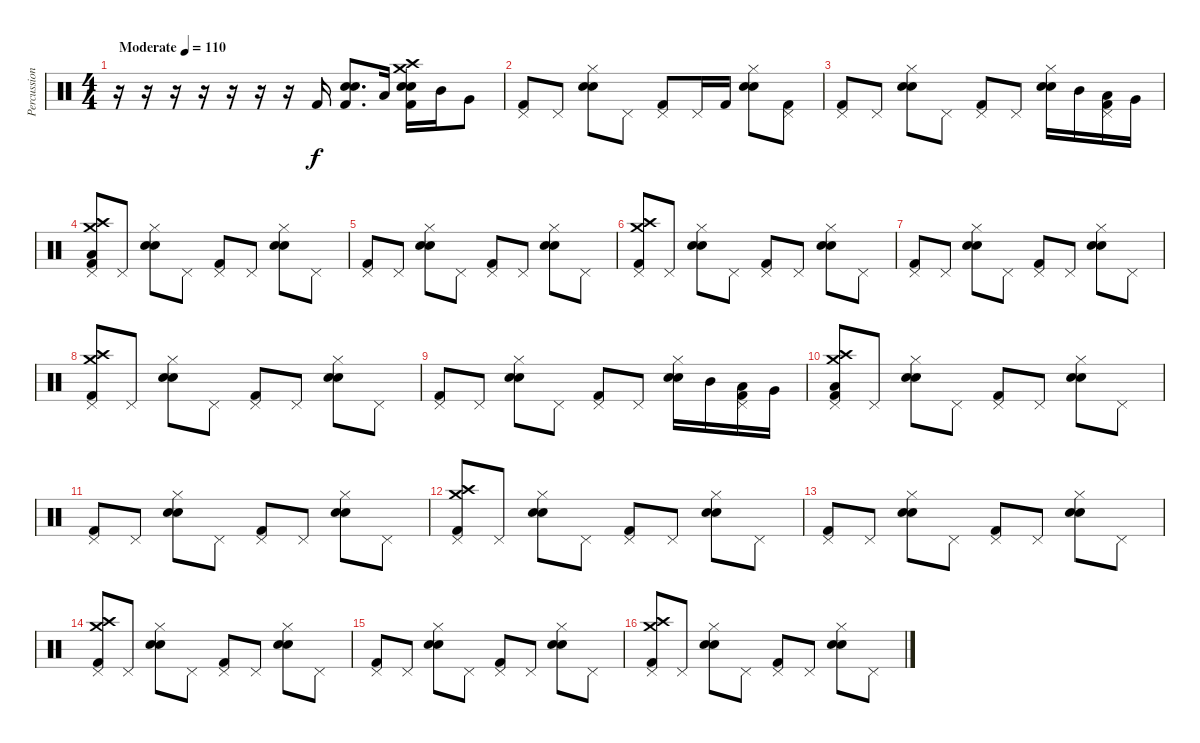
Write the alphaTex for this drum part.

\track ("Percussion" "Percussion") {instrument percussion}
\staff {score}
\articulation defaults
\ts (4 4)
\tempo (110 "Moderate")
\clef neutral
\ks c
r.16{dy f} r.16 r.16 r.16 r.16 r.16 r.16 "Kick (hit) 2".16 ("Electric Snare (hit)" "Snare (hit) 2" "Kick (hit) 2").8{d} "Low Tom (hit)".16 ("Crash medium (hit)" "Crash high (hit)" "Electric Snare (hit)" "Snare (hit) 2" "Kick (hit) 2").16 "Mid Tom (hit)".16 "Very Low Tom (hit)".8 |
("Pedal Hi-Hat (hit)" "Kick (hit) 2").8 "Pedal Hi-Hat (hit)".8 ("Electric Snare (hit)" "Hi-Hat (closed)" "Snare (hit) 2").8 "Pedal Hi-Hat (hit)".8 ("Pedal Hi-Hat (hit)" "Kick (hit) 2").8 "Pedal Hi-Hat (hit)".16 "Kick (hit) 2".16 ("Electric Snare (hit)" "Hi-Hat (closed)" "Snare (hit) 2").8 ("Pedal Hi-Hat (hit)" "Kick (hit) 2").8 |
("Pedal Hi-Hat (hit)" "Kick (hit) 2").8 "Pedal Hi-Hat (hit)".8 ("Electric Snare (hit)" "Hi-Hat (closed)" "Snare (hit) 2").8 "Pedal Hi-Hat (hit)".8 ("Pedal Hi-Hat (hit)" "Kick (hit) 2").8 "Pedal Hi-Hat (hit)".8 ("Electric Snare (hit)" "Hi-Hat (closed)" "Snare (hit) 2").16 "Mid Tom (hit)".16 ("Low Tom (hit)" "Pedal Hi-Hat (hit)" "Kick (hit) 2").16 "Very Low Tom (hit)".16 |
("Low Floor Tom (hit)" "Crash medium (hit)" "Crash high (hit)" "Pedal Hi-Hat (hit)" "Kick (hit) 2").8 "Pedal Hi-Hat (hit)".8 ("Electric Snare (hit)" "Hi-Hat (closed)" "Snare (hit) 2").8 "Pedal Hi-Hat (hit)".8 ("Pedal Hi-Hat (hit)" "Kick (hit) 2").8 "Pedal Hi-Hat (hit)".8 ("Electric Snare (hit)" "Hi-Hat (closed)" "Snare (hit) 2").8 "Pedal Hi-Hat (hit)".8 |
("Pedal Hi-Hat (hit)" "Kick (hit) 2").8 "Pedal Hi-Hat (hit)".8 ("Electric Snare (hit)" "Hi-Hat (closed)" "Snare (hit) 2").8 "Pedal Hi-Hat (hit)".8 ("Pedal Hi-Hat (hit)" "Kick (hit) 2").8 "Pedal Hi-Hat (hit)".8 ("Electric Snare (hit)" "Hi-Hat (closed)" "Snare (hit) 2").8 "Pedal Hi-Hat (hit)".8 |
("Crash medium (hit)" "Crash high (hit)" "Pedal Hi-Hat (hit)" "Kick (hit) 2").8 "Pedal Hi-Hat (hit)".8 ("Electric Snare (hit)" "Hi-Hat (closed)" "Snare (hit) 2").8 "Pedal Hi-Hat (hit)".8 ("Pedal Hi-Hat (hit)" "Kick (hit) 2").8 "Pedal Hi-Hat (hit)".8 ("Electric Snare (hit)" "Hi-Hat (closed)" "Snare (hit) 2").8 "Pedal Hi-Hat (hit)".8 |
("Pedal Hi-Hat (hit)" "Kick (hit) 2").8 "Pedal Hi-Hat (hit)".8 ("Electric Snare (hit)" "Hi-Hat (closed)" "Snare (hit) 2").8 "Pedal Hi-Hat (hit)".8 ("Pedal Hi-Hat (hit)" "Kick (hit) 2").8 "Pedal Hi-Hat (hit)".8 ("Electric Snare (hit)" "Hi-Hat (closed)" "Snare (hit) 2").8 "Pedal Hi-Hat (hit)".8 |
("Crash medium (hit)" "Crash high (hit)" "Pedal Hi-Hat (hit)" "Kick (hit) 2").8 "Pedal Hi-Hat (hit)".8 ("Electric Snare (hit)" "Hi-Hat (closed)" "Snare (hit) 2").8 "Pedal Hi-Hat (hit)".8 ("Pedal Hi-Hat (hit)" "Kick (hit) 2").8 "Pedal Hi-Hat (hit)".8 ("Electric Snare (hit)" "Hi-Hat (closed)" "Snare (hit) 2").8 "Pedal Hi-Hat (hit)".8 |
("Pedal Hi-Hat (hit)" "Kick (hit) 2").8 "Pedal Hi-Hat (hit)".8 ("Electric Snare (hit)" "Hi-Hat (closed)" "Snare (hit) 2").8 "Pedal Hi-Hat (hit)".8 ("Pedal Hi-Hat (hit)" "Kick (hit) 2").8 "Pedal Hi-Hat (hit)".8 ("Electric Snare (hit)" "Hi-Hat (closed)" "Snare (hit) 2").16 "Mid Tom (hit)".16 ("Low Tom (hit)" "Pedal Hi-Hat (hit)" "Kick (hit) 2").16 "Very Low Tom (hit)".16 |
("Low Floor Tom (hit)" "Crash medium (hit)" "Crash high (hit)" "Pedal Hi-Hat (hit)" "Kick (hit) 2").8 "Pedal Hi-Hat (hit)".8 ("Electric Snare (hit)" "Hi-Hat (closed)" "Snare (hit) 2").8 "Pedal Hi-Hat (hit)".8 ("Pedal Hi-Hat (hit)" "Kick (hit) 2").8 "Pedal Hi-Hat (hit)".8 ("Electric Snare (hit)" "Hi-Hat (closed)" "Snare (hit) 2").8 "Pedal Hi-Hat (hit)".8 |
("Pedal Hi-Hat (hit)" "Kick (hit) 2").8 "Pedal Hi-Hat (hit)".8 ("Electric Snare (hit)" "Hi-Hat (closed)" "Snare (hit) 2").8 "Pedal Hi-Hat (hit)".8 ("Pedal Hi-Hat (hit)" "Kick (hit) 2").8 "Pedal Hi-Hat (hit)".8 ("Electric Snare (hit)" "Hi-Hat (closed)" "Snare (hit) 2").8 "Pedal Hi-Hat (hit)".8 |
("Crash medium (hit)" "Crash high (hit)" "Pedal Hi-Hat (hit)" "Kick (hit) 2").8 "Pedal Hi-Hat (hit)".8 ("Electric Snare (hit)" "Hi-Hat (closed)" "Snare (hit) 2").8 "Pedal Hi-Hat (hit)".8 ("Pedal Hi-Hat (hit)" "Kick (hit) 2").8 "Pedal Hi-Hat (hit)".8 ("Electric Snare (hit)" "Hi-Hat (closed)" "Snare (hit) 2").8 "Pedal Hi-Hat (hit)".8 |
("Pedal Hi-Hat (hit)" "Kick (hit) 2").8 "Pedal Hi-Hat (hit)".8 ("Electric Snare (hit)" "Hi-Hat (closed)" "Snare (hit) 2").8 "Pedal Hi-Hat (hit)".8 ("Pedal Hi-Hat (hit)" "Kick (hit) 2").8 "Pedal Hi-Hat (hit)".8 ("Electric Snare (hit)" "Hi-Hat (closed)" "Snare (hit) 2").8 "Pedal Hi-Hat (hit)".8 |
("Crash medium (hit)" "Crash high (hit)" "Pedal Hi-Hat (hit)" "Kick (hit) 2").8 "Pedal Hi-Hat (hit)".8 ("Electric Snare (hit)" "Hi-Hat (closed)" "Snare (hit) 2").8 "Pedal Hi-Hat (hit)".8 ("Pedal Hi-Hat (hit)" "Kick (hit) 2").8 "Pedal Hi-Hat (hit)".8 ("Electric Snare (hit)" "Hi-Hat (closed)" "Snare (hit) 2").8 "Pedal Hi-Hat (hit)".8 |
("Pedal Hi-Hat (hit)" "Kick (hit) 2").8 "Pedal Hi-Hat (hit)".8 ("Electric Snare (hit)" "Hi-Hat (closed)" "Snare (hit) 2").8 "Pedal Hi-Hat (hit)".8 ("Pedal Hi-Hat (hit)" "Kick (hit) 2").8 "Pedal Hi-Hat (hit)".8 ("Electric Snare (hit)" "Hi-Hat (closed)" "Snare (hit) 2").8 "Pedal Hi-Hat (hit)".8 |
("Crash medium (hit)" "Crash high (hit)" "Pedal Hi-Hat (hit)" "Kick (hit) 2").8 "Pedal Hi-Hat (hit)".8 ("Electric Snare (hit)" "Hi-Hat (closed)" "Snare (hit) 2").8 "Pedal Hi-Hat (hit)".8 ("Pedal Hi-Hat (hit)" "Kick (hit) 2").8 "Pedal Hi-Hat (hit)".8 ("Electric Snare (hit)" "Hi-Hat (closed)" "Snare (hit) 2").8 "Pedal Hi-Hat (hit)".8
